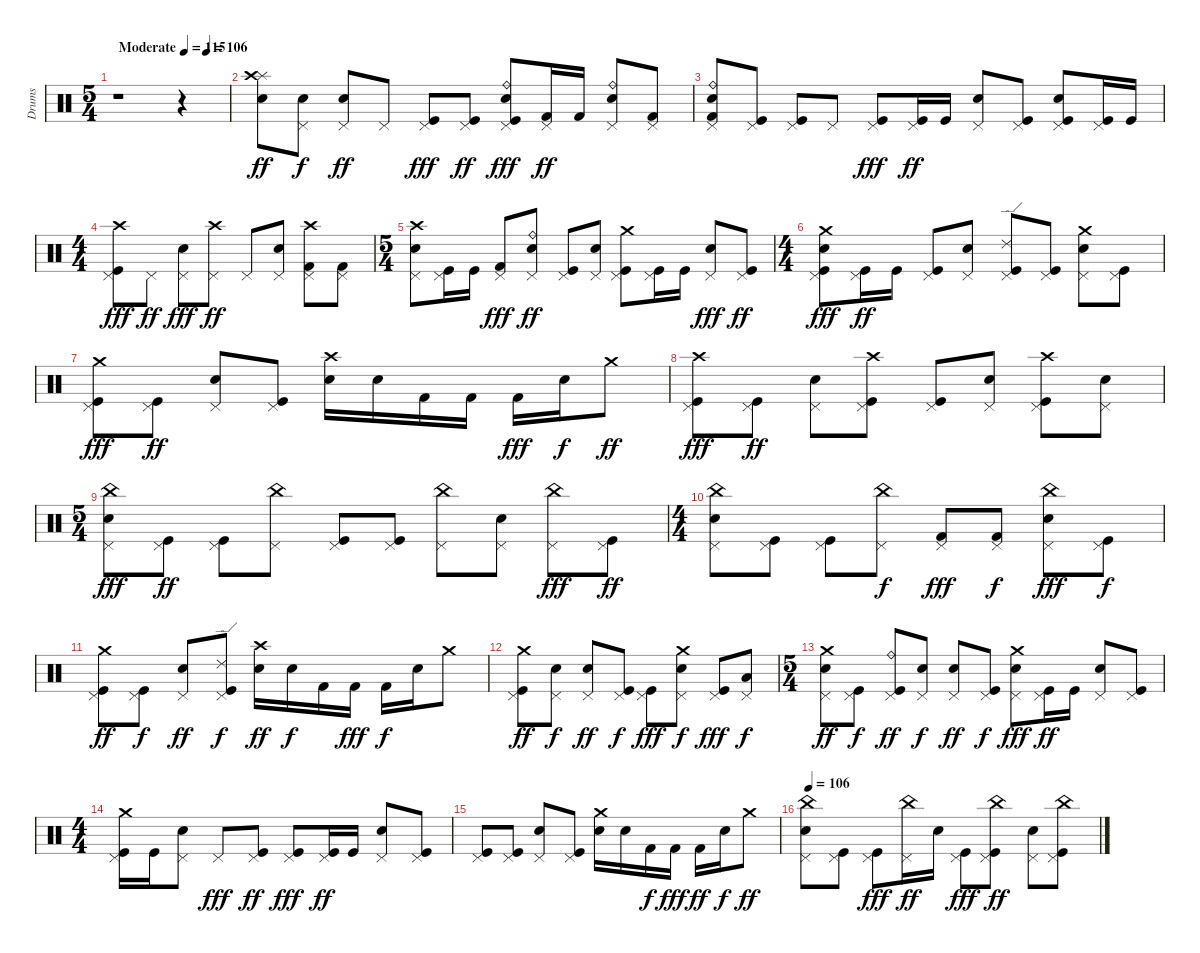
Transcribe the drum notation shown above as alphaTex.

\track ("Drums" "Drums") {instrument percussion}
\staff {score}
\articulation defaults
\ts (5 4)
\tempo (115 "Moderate")
\tempo (106 0.8)
\tempo (115 "Moderate")
\clef neutral
\ks c
r.1{dy ff} r.4 |
("Splash (hit)" "Crash high (hit)" "Snare (hit) 2").8 ("Pedal Hi-Hat (hit)" "Electric Snare (hit)").8{dy f} ("Pedal Hi-Hat (hit)" "Electric Snare (hit)").8{dy ff} "Pedal Hi-Hat (hit)".8 ("Pedal Hi-Hat (hit)" "Kick (hit)").8{dy fff} ("Pedal Hi-Hat (hit)" "Kick (hit)").8{dy ff} ("Kick (hit)" "Pedal Hi-Hat (hit)" "Ride (bell)" "Electric Snare (hit)").8{dy fff} ("Pedal Hi-Hat (hit)" "Kick (hit) 2").16{dy ff} "Kick (hit) 2".16 ("Pedal Hi-Hat (hit)" "Ride (bell)" "Electric Snare (hit)").8 ("Pedal Hi-Hat (hit)" "Kick (hit) 2").8 |
("Kick (hit) 2" "Pedal Hi-Hat (hit)" "Ride (bell)" "Electric Snare (hit)").8 ("Pedal Hi-Hat (hit)" "Kick (hit)").8 ("Pedal Hi-Hat (hit)" "Kick (hit)").8 "Pedal Hi-Hat (hit)".8 ("Pedal Hi-Hat (hit)" "Kick (hit)").8{dy fff} ("Pedal Hi-Hat (hit)" "Kick (hit)").16{dy ff} "Kick (hit)".16 ("Pedal Hi-Hat (hit)" "Electric Snare (hit)").8 ("Pedal Hi-Hat (hit)" "Kick (hit)").8 ("Kick (hit)" "Pedal Hi-Hat (hit)" "Electric Snare (hit)").8 ("Pedal Hi-Hat (hit)" "Kick (hit)").16 "Kick (hit)".16 |
\ts (4 4)
("Pedal Hi-Hat (hit)" "Crash high (hit)" "Kick (hit)").8{dy fff} "Pedal Hi-Hat (hit)".8{dy ff} ("Pedal Hi-Hat (hit)" "Snare (hit) 2").8{dy fff} ("Pedal Hi-Hat (hit)" "Crash high (hit)").8{dy ff} "Pedal Hi-Hat (hit)".8 ("Pedal Hi-Hat (hit)" "Snare (hit) 2").8 ("Pedal Hi-Hat (hit)" "Kick (hit) 2" "Crash high (hit)").8 ("Pedal Hi-Hat (hit)" "Kick (hit) 2").8 |
\ts (5 4)
("Pedal Hi-Hat (hit)" "Crash high (hit)" "Snare (hit) 2").8 ("Pedal Hi-Hat (hit)" "Kick (hit)").16 "Kick (hit)".16 ("Pedal Hi-Hat (hit)" "Kick (hit) 2").8{dy fff} ("Pedal Hi-Hat (hit)" "Ride (bell)" "Electric Snare (hit)").8{dy ff} ("Pedal Hi-Hat (hit)" "Kick (hit)").8 ("Pedal Hi-Hat (hit)" "Electric Snare (hit)").8 ("Pedal Hi-Hat (hit)" "Crash medium (hit)" "Kick (hit)").8 ("Pedal Hi-Hat (hit)" "Kick (hit)").16 "Kick (hit)".16 ("Pedal Hi-Hat (hit)" "Electric Snare (hit)").8{dy fff} ("Pedal Hi-Hat (hit)" "Kick (hit)").8{dy ff} |
\ts (4 4)
("Kick (hit)" "Pedal Hi-Hat (hit)" "Crash medium (hit)" "Electric Snare (hit)").8{dy fff} ("Pedal Hi-Hat (hit)" "Kick (hit)").16{dy ff} "Kick (hit)".16 ("Pedal Hi-Hat (hit)" "Kick (hit)").8 ("Pedal Hi-Hat (hit)" "Electric Snare (hit)").8 ("Pedal Hi-Hat (hit)" "Ride (edge) 2" "Kick (hit)").8 ("Pedal Hi-Hat (hit)" "Kick (hit)").8 ("Pedal Hi-Hat (hit)" "Crash medium (hit)" "Electric Snare (hit)").8 ("Pedal Hi-Hat (hit)" "Kick (hit)").8 |
("Kick (hit)" "Crash medium (hit)" "Pedal Hi-Hat (hit)").8{dy fff} ("Pedal Hi-Hat (hit)" "Kick (hit)").8{dy ff} ("Pedal Hi-Hat (hit)" "Snare (hit) 2").8 ("Pedal Hi-Hat (hit)" "Kick (hit)").8 ("Crash high (hit)" "Electric Snare (hit)").16 "Electric Snare (hit)".16 "Kick (hit) 2".16 "Kick (hit) 2".16 "Kick (hit) 2".16{dy fff} "Electric Snare (hit)".16{dy f} "Crash medium (hit)".8{dy ff} |
("Pedal Hi-Hat (hit)" "Crash high (hit)" "Kick (hit)").8{dy fff} ("Pedal Hi-Hat (hit)" "Kick (hit)").8{dy ff} ("Pedal Hi-Hat (hit)" "Electric Snare (hit)").8 ("Pedal Hi-Hat (hit)" "Crash high (hit)" "Kick (hit)").8 ("Pedal Hi-Hat (hit)" "Kick (hit)").8 ("Pedal Hi-Hat (hit)" "Electric Snare (hit)").8 ("Pedal Hi-Hat (hit)" "Crash high (hit)" "Kick (hit)").8 ("Pedal Hi-Hat (hit)" "Electric Snare (hit)").8 |
\ts (5 4)
("Pedal Hi-Hat (hit)" "Snare (hit) 2" "China (hit)").8{dy fff} ("Pedal Hi-Hat (hit)" "Kick (hit)").8{dy ff} ("Pedal Hi-Hat (hit)" "Kick (hit)").8 ("Pedal Hi-Hat (hit)" "China (hit)").8 ("Pedal Hi-Hat (hit)" "Kick (hit)").8 ("Pedal Hi-Hat (hit)" "Kick (hit)").8 ("Pedal Hi-Hat (hit)" "China (hit)").8 ("Pedal Hi-Hat (hit)" "Snare (hit) 2").8 ("Pedal Hi-Hat (hit)" "China (hit)").8{dy fff} ("Pedal Hi-Hat (hit)" "Kick (hit)").8{dy ff} |
\ts (4 4)
("Pedal Hi-Hat (hit)" "Electric Snare (hit)" "China (hit)").8 ("Pedal Hi-Hat (hit)" "Kick (hit)").8 ("Pedal Hi-Hat (hit)" "Kick (hit)").8 ("Pedal Hi-Hat (hit)" "China (hit)").8{dy f} ("Pedal Hi-Hat (hit)" "Kick (hit) 2").8{dy fff} ("Pedal Hi-Hat (hit)" "Kick (hit) 2").8{dy f} ("Pedal Hi-Hat (hit)" "Electric Snare (hit)" "China (hit)").8{dy fff} ("Pedal Hi-Hat (hit)" "Kick (hit)").8{dy f} |
("Pedal Hi-Hat (hit)" "Crash medium (hit)" "Kick (hit)").8{dy ff} ("Pedal Hi-Hat (hit)" "Kick (hit)").8{dy f} ("Pedal Hi-Hat (hit)" "Electric Snare (hit)").8{dy ff} ("Pedal Hi-Hat (hit)" "Ride (edge) 2" "Kick (hit)").8{dy f} ("Crash high (hit)" "Electric Snare (hit)").16{dy ff} "Electric Snare (hit)".16{dy f} "Kick (hit) 2".16 "Kick (hit) 2".16{dy fff} "Kick (hit) 2".16{dy f} "Electric Snare (hit)".16 "Crash medium (hit)".8 |
("Pedal Hi-Hat (hit)" "Crash medium (hit)" "Kick (hit)").8{dy ff} ("Pedal Hi-Hat (hit)" "Electric Snare (hit)").8{dy f} ("Pedal Hi-Hat (hit)" "Electric Snare (hit)").8{dy ff} ("Pedal Hi-Hat (hit)" "Kick (hit)").8{dy f} ("Pedal Hi-Hat (hit)" "Kick (hit)").8{dy fff} ("Pedal Hi-Hat (hit)" "Crash medium (hit)" "Electric Snare (hit)").8{dy f} ("Pedal Hi-Hat (hit)" "Kick (hit)").8{dy fff} ("Pedal Hi-Hat (hit)" "Low Tom (hit)").8{dy f} |
\ts (5 4)
("Pedal Hi-Hat (hit)" "Crash medium (hit)" "Electric Snare (hit)").8{dy ff} ("Pedal Hi-Hat (hit)" "Kick (hit)").8{dy f} ("Pedal Hi-Hat (hit)" "Ride (bell)" "Kick (hit)").8{dy ff} ("Pedal Hi-Hat (hit)" "Electric Snare (hit)").8{dy f} ("Pedal Hi-Hat (hit)" "Electric Snare (hit)").8{dy ff} ("Pedal Hi-Hat (hit)" "Kick (hit)").8{dy f} ("Pedal Hi-Hat (hit)" "Crash medium (hit)" "Electric Snare (hit)").8{dy fff} ("Pedal Hi-Hat (hit)" "Kick (hit)").16{dy ff} "Kick (hit)".16 ("Pedal Hi-Hat (hit)" "Electric Snare (hit)").8 ("Pedal Hi-Hat (hit)" "Kick (hit)").8 |
\ts (4 4)
("Kick (hit)" "Pedal Hi-Hat (hit)" "Crash medium (hit)").16 "Kick (hit)".16 ("Pedal Hi-Hat (hit)" "Electric Snare (hit)").8 "Pedal Hi-Hat (hit)".8{dy fff} ("Pedal Hi-Hat (hit)" "Kick (hit)").8{dy ff} ("Pedal Hi-Hat (hit)" "Kick (hit)").8{dy fff} ("Pedal Hi-Hat (hit)" "Kick (hit)").16{dy ff} "Kick (hit)".16 ("Pedal Hi-Hat (hit)" "Electric Snare (hit)").8 ("Pedal Hi-Hat (hit)" "Kick (hit)").8 |
("Pedal Hi-Hat (hit)" "Kick (hit)").8 ("Pedal Hi-Hat (hit)" "Kick (hit)").8 ("Pedal Hi-Hat (hit)" "Electric Snare (hit)").8 ("Pedal Hi-Hat (hit)" "Kick (hit)").8 ("Crash medium (hit)" "Electric Snare (hit)").16 "Electric Snare (hit)".16 "Kick (hit) 2".16{dy f} "Kick (hit) 2".16{dy fff} "Kick (hit) 2".16{dy ff} "Electric Snare (hit)".16{dy f} "Crash medium (hit)".8{dy ff} |
\tempo 106
("Pedal Hi-Hat (hit)" "China (hit)" "Electric Snare (hit)").8 ("Pedal Hi-Hat (hit)" "Kick (hit)").8 ("Pedal Hi-Hat (hit)" "Kick (hit)").8{dy fff} ("Pedal Hi-Hat (hit)" "China (hit)").16{dy ff} "Electric Snare (hit)".16 ("Pedal Hi-Hat (hit)" "Kick (hit)").8{dy fff} ("Pedal Hi-Hat (hit)" "China (hit)" "Kick (hit)").8{dy ff} ("Pedal Hi-Hat (hit)" "Electric Snare (hit)").8 ("Kick (hit)" "Pedal Hi-Hat (hit)" "China (hit)").8
